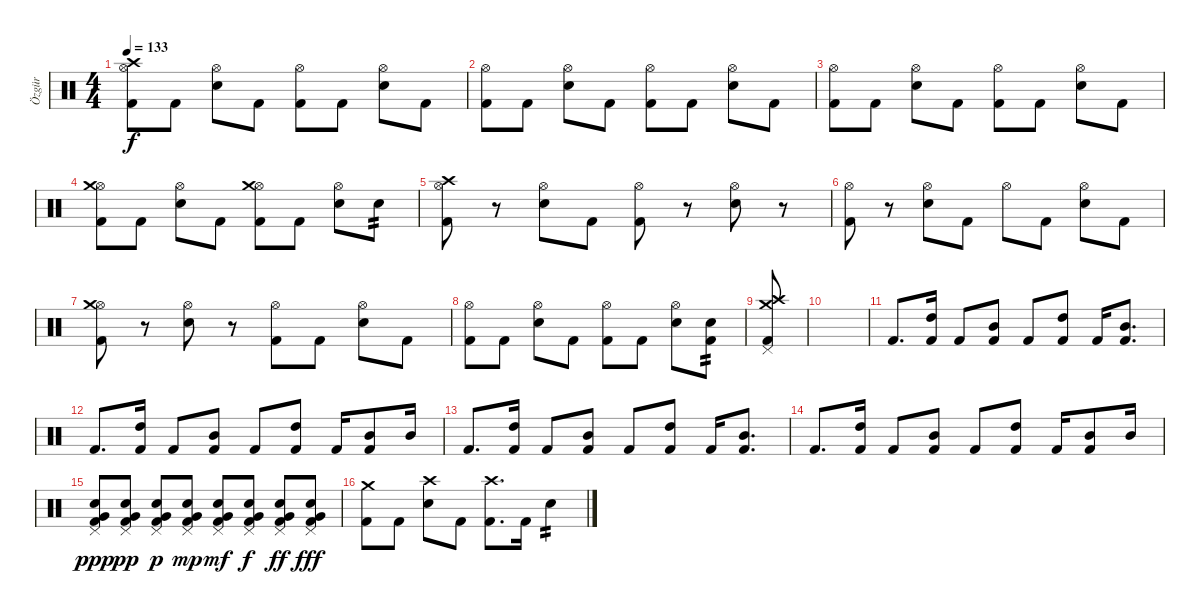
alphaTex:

\track ("Özgür" "Özgür") {instrument percussion}
\staff {score}
\articulation defaults
\ts (4 4)
\tempo 133
\clef neutral
\ks c
("Kick (hit) 2" "Hi-Hat (open)" "Crash high (hit)").8{dy f} "Kick (hit) 2".8 ("Snare (hit) 2" "Hi-Hat (open)").8 "Kick (hit) 2".8 ("Kick (hit) 2" "Hi-Hat (open)").8 "Kick (hit) 2".8 ("Snare (hit) 2" "Hi-Hat (open)").8 "Kick (hit) 2".8 |
("Kick (hit) 2" "Hi-Hat (open)").8 "Kick (hit) 2".8 ("Snare (hit) 2" "Hi-Hat (open)").8 "Kick (hit) 2".8 ("Kick (hit) 2" "Hi-Hat (open)").8 "Kick (hit) 2".8 ("Snare (hit) 2" "Hi-Hat (open)").8 "Kick (hit) 2".8 |
("Kick (hit) 2" "Hi-Hat (open)").8 "Kick (hit) 2".8 ("Snare (hit) 2" "Hi-Hat (open)").8 "Kick (hit) 2".8 ("Kick (hit) 2" "Hi-Hat (open)").8 "Kick (hit) 2".8 ("Snare (hit) 2" "Hi-Hat (open)").8 "Kick (hit) 2".8 |
("Kick (hit) 2" "Hi-Hat (open)" "Crash medium (hit)").8 "Kick (hit) 2".8 ("Snare (hit) 2" "Hi-Hat (open)").8 "Kick (hit) 2".8 ("Kick (hit) 2" "Hi-Hat (open)" "Crash medium (hit)").8 "Kick (hit) 2".8 ("Snare (hit) 2" "Hi-Hat (open)").8 "Snare (hit) 2".8{tp 2} |
("Kick (hit) 2" "Hi-Hat (open)" "Crash high (hit)").8 r.8 ("Snare (hit) 2" "Hi-Hat (open)").8 "Kick (hit) 2".8 ("Kick (hit) 2" "Hi-Hat (open)").8 r.8 ("Snare (hit) 2" "Hi-Hat (open)").8 r.8 |
("Kick (hit) 2" "Hi-Hat (open)").8 r.8 ("Snare (hit) 2" "Hi-Hat (open)").8 "Kick (hit) 2".8 "Hi-Hat (open)".8 "Kick (hit) 2".8 ("Snare (hit) 2" "Hi-Hat (open)").8 "Kick (hit) 2".8 |
("Kick (hit) 2" "Hi-Hat (open)" "Crash medium (hit)").8 r.8 ("Snare (hit) 2" "Hi-Hat (open)").8 r.8 ("Kick (hit) 2" "Hi-Hat (open)").8 "Kick (hit) 2".8 ("Snare (hit) 2" "Hi-Hat (open)").8 "Kick (hit) 2".8 |
("Kick (hit) 2" "Hi-Hat (open)").8 "Kick (hit) 2".8 ("Snare (hit) 2" "Hi-Hat (open)").8 "Kick (hit) 2".8 ("Kick (hit) 2" "Hi-Hat (open)").8 "Kick (hit) 2".8 ("Snare (hit) 2" "Hi-Hat (open)").8 ("Kick (hit) 2" "Snare (hit) 2").8{tp 2} |
("Crash high (hit)" "Crash medium (hit)" "Pedal Hi-Hat (hit)" "Kick (hit) 2").8 |
|
"Kick (hit) 2".8{d} ("Kick (hit) 2" "High Tom (hit)").16 "Kick (hit) 2".8 ("Kick (hit) 2" "Mid Tom (hit)").8 "Kick (hit) 2".8 ("Kick (hit) 2" "High Tom (hit)").8 "Kick (hit) 2".16 ("Kick (hit) 2" "Mid Tom (hit)").8{d} |
"Kick (hit) 2".8{d} ("Kick (hit) 2" "High Tom (hit)").16 "Kick (hit) 2".8 ("Kick (hit) 2" "Mid Tom (hit)").8 "Kick (hit) 2".8 ("Kick (hit) 2" "High Tom (hit)").8 "Kick (hit) 2".16 ("Kick (hit) 2" "Mid Tom (hit)").8 "Mid Tom (hit)".16 |
"Kick (hit) 2".8{d} ("Kick (hit) 2" "High Tom (hit)").16 "Kick (hit) 2".8 ("Kick (hit) 2" "Mid Tom (hit)").8 "Kick (hit) 2".8 ("Kick (hit) 2" "High Tom (hit)").8 "Kick (hit) 2".16 ("Kick (hit) 2" "Mid Tom (hit)").8{d} |
"Kick (hit) 2".8{d} ("Kick (hit) 2" "High Tom (hit)").16 "Kick (hit) 2".8 ("Kick (hit) 2" "Mid Tom (hit)").8 "Kick (hit) 2".8 ("Kick (hit) 2" "High Tom (hit)").8 "Kick (hit) 2".16 ("Kick (hit) 2" "Mid Tom (hit)").8 "Mid Tom (hit)".16 |
("Kick (hit) 2" "Pedal Hi-Hat (hit)" "Very Low Tom (hit)" "Snare (hit) 2").8{dy ppp} ("Kick (hit) 2" "Pedal Hi-Hat (hit)" "Very Low Tom (hit)" "Snare (hit) 2").8{dy pp} ("Kick (hit) 2" "Pedal Hi-Hat (hit)" "Very Low Tom (hit)" "Snare (hit) 2").8{dy p} ("Kick (hit) 2" "Pedal Hi-Hat (hit)" "Very Low Tom (hit)" "Snare (hit) 2").8{dy mp} ("Kick (hit) 2" "Pedal Hi-Hat (hit)" "Very Low Tom (hit)" "Snare (hit) 2").8{dy mf} ("Kick (hit) 2" "Pedal Hi-Hat (hit)" "Very Low Tom (hit)" "Snare (hit) 2").8{dy f} ("Kick (hit) 2" "Pedal Hi-Hat (hit)" "Very Low Tom (hit)" "Snare (hit) 2").8{dy ff} ("Kick (hit) 2" "Pedal Hi-Hat (hit)" "Very Low Tom (hit)" "Snare (hit) 2").8{dy fff} |
("Crash medium (hit)" "Kick (hit) 2").8 "Kick (hit) 2".8 ("Crash high (hit)" "Electric Snare (hit)").8 "Kick (hit) 2".8 ("Crash high (hit)" "Kick (hit) 2").8{d} "Kick (hit) 2".16 "Electric Snare (hit)".4{tp 2}
